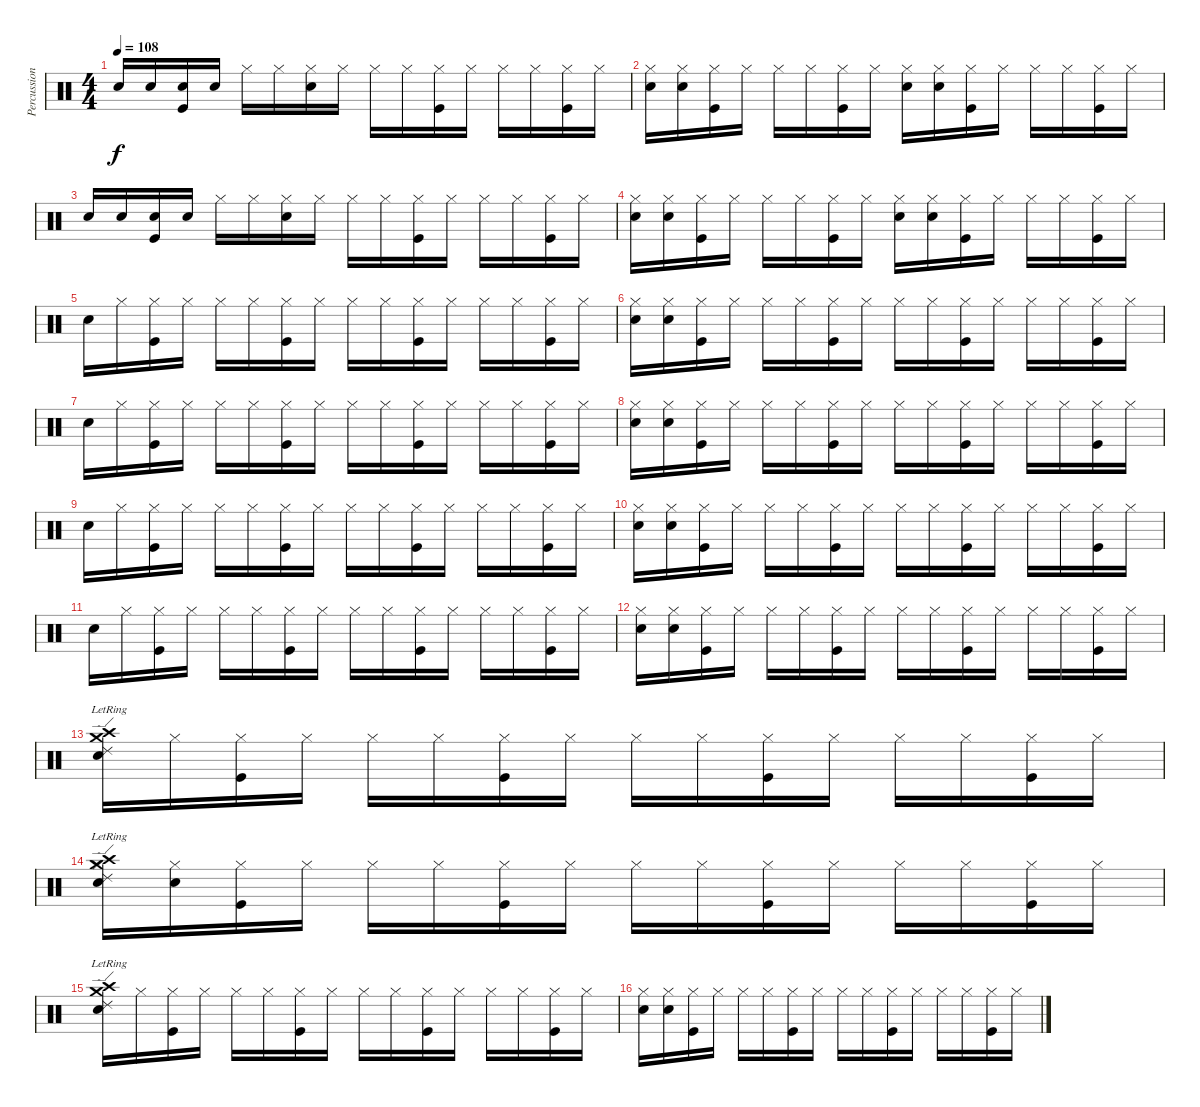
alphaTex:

\track ("Percussions" "Percussion") {instrument percussion}
\staff {score}
\articulation defaults
\ts (4 4)
\tempo 108
\clef neutral
\ks c "Electric Snare (hit)".16{dy f} "Electric Snare (hit)".16
("Electric Snare (hit)" "Kick (hit)").16 "Electric Snare (hit)".16 "Hi-Hat (closed)".16 "Hi-Hat (closed)".16 ("Hi-Hat (closed)" "Electric Snare (hit)").16 "Hi-Hat (closed)".16 "Hi-Hat (closed)".16 "Hi-Hat (closed)".16 ("Hi-Hat (closed)" "Kick (hit)").16 "Hi-Hat (closed)".16 "Hi-Hat (closed)".16 "Hi-Hat (closed)".16 ("Hi-Hat (closed)" "Kick (hit)").16 "Hi-Hat (closed)".16 |
("Hi-Hat (closed)" "Electric Snare (hit)").16 ("Hi-Hat (closed)" "Electric Snare (hit)").16 ("Hi-Hat (closed)" "Kick (hit)").16 "Hi-Hat (closed)".16 "Hi-Hat (closed)".16 "Hi-Hat (closed)".16 ("Hi-Hat (closed)" "Kick (hit)").16 "Hi-Hat (closed)".16 ("Hi-Hat (closed)" "Electric Snare (hit)").16 ("Hi-Hat (closed)" "Electric Snare (hit)").16 ("Hi-Hat (closed)" "Kick (hit)").16 "Hi-Hat (closed)".16 "Hi-Hat (closed)".16 "Hi-Hat (closed)".16 ("Hi-Hat (closed)" "Kick (hit)").16 "Hi-Hat (closed)".16 |
"Electric Snare (hit)".16 "Electric Snare (hit)".16 ("Electric Snare (hit)" "Kick (hit)").16 "Electric Snare (hit)".16 "Hi-Hat (closed)".16 "Hi-Hat (closed)".16 ("Hi-Hat (closed)" "Electric Snare (hit)").16 "Hi-Hat (closed)".16 "Hi-Hat (closed)".16 "Hi-Hat (closed)".16 ("Hi-Hat (closed)" "Kick (hit)").16 "Hi-Hat (closed)".16 "Hi-Hat (closed)".16 "Hi-Hat (closed)".16 ("Hi-Hat (closed)" "Kick (hit)").16 "Hi-Hat (closed)".16 |
("Hi-Hat (closed)" "Electric Snare (hit)").16 ("Hi-Hat (closed)" "Electric Snare (hit)").16 ("Hi-Hat (closed)" "Kick (hit)").16 "Hi-Hat (closed)".16 "Hi-Hat (closed)".16 "Hi-Hat (closed)".16 ("Hi-Hat (closed)" "Kick (hit)").16 "Hi-Hat (closed)".16 ("Hi-Hat (closed)" "Electric Snare (hit)").16 ("Hi-Hat (closed)" "Electric Snare (hit)").16 ("Hi-Hat (closed)" "Kick (hit)").16 "Hi-Hat (closed)".16 "Hi-Hat (closed)".16 "Hi-Hat (closed)".16 ("Hi-Hat (closed)" "Kick (hit)").16 "Hi-Hat (closed)".16 |
"Electric Snare (hit)".16 "Hi-Hat (closed)".16 ("Hi-Hat (closed)" "Kick (hit)").16 "Hi-Hat (closed)".16 "Hi-Hat (closed)".16 "Hi-Hat (closed)".16 ("Hi-Hat (closed)" "Kick (hit)").16 "Hi-Hat (closed)".16 "Hi-Hat (closed)".16 "Hi-Hat (closed)".16 ("Hi-Hat (closed)" "Kick (hit)").16 "Hi-Hat (closed)".16 "Hi-Hat (closed)".16 "Hi-Hat (closed)".16 ("Hi-Hat (closed)" "Kick (hit)").16 "Hi-Hat (closed)".16 |
("Hi-Hat (closed)" "Electric Snare (hit)").16 ("Hi-Hat (closed)" "Electric Snare (hit)").16 ("Hi-Hat (closed)" "Kick (hit)").16 "Hi-Hat (closed)".16 "Hi-Hat (closed)".16 "Hi-Hat (closed)".16 ("Hi-Hat (closed)" "Kick (hit)").16 "Hi-Hat (closed)".16 "Hi-Hat (closed)".16 "Hi-Hat (closed)".16 ("Hi-Hat (closed)" "Kick (hit)").16 "Hi-Hat (closed)".16 "Hi-Hat (closed)".16 "Hi-Hat (closed)".16 ("Hi-Hat (closed)" "Kick (hit)").16 "Hi-Hat (closed)".16 |
"Electric Snare (hit)".16 "Hi-Hat (closed)".16 ("Hi-Hat (closed)" "Kick (hit)").16 "Hi-Hat (closed)".16 "Hi-Hat (closed)".16 "Hi-Hat (closed)".16 ("Hi-Hat (closed)" "Kick (hit)").16 "Hi-Hat (closed)".16 "Hi-Hat (closed)".16 "Hi-Hat (closed)".16 ("Hi-Hat (closed)" "Kick (hit)").16 "Hi-Hat (closed)".16 "Hi-Hat (closed)".16 "Hi-Hat (closed)".16 ("Hi-Hat (closed)" "Kick (hit)").16 "Hi-Hat (closed)".16 |
("Hi-Hat (closed)" "Electric Snare (hit)").16 ("Hi-Hat (closed)" "Electric Snare (hit)").16 ("Hi-Hat (closed)" "Kick (hit)").16 "Hi-Hat (closed)".16 "Hi-Hat (closed)".16 "Hi-Hat (closed)".16 ("Hi-Hat (closed)" "Kick (hit)").16 "Hi-Hat (closed)".16 "Hi-Hat (closed)".16 "Hi-Hat (closed)".16 ("Hi-Hat (closed)" "Kick (hit)").16 "Hi-Hat (closed)".16 "Hi-Hat (closed)".16 "Hi-Hat (closed)".16 ("Hi-Hat (closed)" "Kick (hit)").16 "Hi-Hat (closed)".16 |
"Electric Snare (hit)".16 "Hi-Hat (closed)".16 ("Hi-Hat (closed)" "Kick (hit)").16 "Hi-Hat (closed)".16 "Hi-Hat (closed)".16 "Hi-Hat (closed)".16 ("Hi-Hat (closed)" "Kick (hit)").16 "Hi-Hat (closed)".16 "Hi-Hat (closed)".16 "Hi-Hat (closed)".16 ("Hi-Hat (closed)" "Kick (hit)").16 "Hi-Hat (closed)".16 "Hi-Hat (closed)".16 "Hi-Hat (closed)".16 ("Hi-Hat (closed)" "Kick (hit)").16 "Hi-Hat (closed)".16 |
("Hi-Hat (closed)" "Electric Snare (hit)").16 ("Hi-Hat (closed)" "Electric Snare (hit)").16 ("Hi-Hat (closed)" "Kick (hit)").16 "Hi-Hat (closed)".16 "Hi-Hat (closed)".16 "Hi-Hat (closed)".16 ("Hi-Hat (closed)" "Kick (hit)").16 "Hi-Hat (closed)".16 "Hi-Hat (closed)".16 "Hi-Hat (closed)".16 ("Hi-Hat (closed)" "Kick (hit)").16 "Hi-Hat (closed)".16 "Hi-Hat (closed)".16 "Hi-Hat (closed)".16 ("Hi-Hat (closed)" "Kick (hit)").16 "Hi-Hat (closed)".16 |
"Electric Snare (hit)".16 "Hi-Hat (closed)".16 ("Hi-Hat (closed)" "Kick (hit)").16 "Hi-Hat (closed)".16 "Hi-Hat (closed)".16 "Hi-Hat (closed)".16 ("Hi-Hat (closed)" "Kick (hit)").16 "Hi-Hat (closed)".16 "Hi-Hat (closed)".16 "Hi-Hat (closed)".16 ("Hi-Hat (closed)" "Kick (hit)").16 "Hi-Hat (closed)".16 "Hi-Hat (closed)".16 "Hi-Hat (closed)".16 ("Hi-Hat (closed)" "Kick (hit)").16 "Hi-Hat (closed)".16 |
("Hi-Hat (closed)" "Electric Snare (hit)").16 ("Hi-Hat (closed)" "Electric Snare (hit)").16 ("Hi-Hat (closed)" "Kick (hit)").16 "Hi-Hat (closed)".16 "Hi-Hat (closed)".16 "Hi-Hat (closed)".16 ("Hi-Hat (closed)" "Kick (hit)").16 "Hi-Hat (closed)".16 "Hi-Hat (closed)".16 "Hi-Hat (closed)".16 ("Hi-Hat (closed)" "Kick (hit)").16 "Hi-Hat (closed)".16 "Hi-Hat (closed)".16 "Hi-Hat (closed)".16 ("Hi-Hat (closed)" "Kick (hit)").16 "Hi-Hat (closed)".16 |
("Electric Snare (hit)" "Ride (edge) 2"{lr} "Crash medium (hit)"{lr} "Crash high (hit)"{lr}).16 "Hi-Hat (closed)".16 ("Hi-Hat (closed)" "Kick (hit)").16 "Hi-Hat (closed)".16 "Hi-Hat (closed)".16 "Hi-Hat (closed)".16 ("Hi-Hat (closed)" "Kick (hit)").16 "Hi-Hat (closed)".16 "Hi-Hat (closed)".16 "Hi-Hat (closed)".16 ("Hi-Hat (closed)" "Kick (hit)").16 "Hi-Hat (closed)".16 "Hi-Hat (closed)".16 "Hi-Hat (closed)".16 ("Hi-Hat (closed)" "Kick (hit)").16 "Hi-Hat (closed)".16 |
("Hi-Hat (closed)" "Electric Snare (hit)" "Ride (edge) 2"{lr} "Crash medium (hit)"{lr} "Crash high (hit)"{lr}).16 ("Hi-Hat (closed)" "Electric Snare (hit)").16 ("Hi-Hat (closed)" "Kick (hit)").16 "Hi-Hat (closed)".16 "Hi-Hat (closed)".16 "Hi-Hat (closed)".16 ("Hi-Hat (closed)" "Kick (hit)").16 "Hi-Hat (closed)".16 "Hi-Hat (closed)".16 "Hi-Hat (closed)".16 ("Hi-Hat (closed)" "Kick (hit)").16 "Hi-Hat (closed)".16 "Hi-Hat (closed)".16 "Hi-Hat (closed)".16 ("Hi-Hat (closed)" "Kick (hit)").16 "Hi-Hat (closed)".16 |
("Electric Snare (hit)" "Ride (edge) 2"{lr} "Crash medium (hit)"{lr} "Crash high (hit)").16 "Hi-Hat (closed)".16 ("Hi-Hat (closed)" "Kick (hit)").16 "Hi-Hat (closed)".16 "Hi-Hat (closed)".16 "Hi-Hat (closed)".16 ("Hi-Hat (closed)" "Kick (hit)").16 "Hi-Hat (closed)".16 "Hi-Hat (closed)".16 "Hi-Hat (closed)".16 ("Hi-Hat (closed)" "Kick (hit)").16 "Hi-Hat (closed)".16 "Hi-Hat (closed)".16 "Hi-Hat (closed)".16 ("Hi-Hat (closed)" "Kick (hit)").16 "Hi-Hat (closed)".16 |
("Hi-Hat (closed)" "Electric Snare (hit)").16 ("Hi-Hat (closed)" "Electric Snare (hit)").16 ("Hi-Hat (closed)" "Kick (hit)").16 "Hi-Hat (closed)".16 "Hi-Hat (closed)".16 "Hi-Hat (closed)".16 ("Hi-Hat (closed)" "Kick (hit)").16 "Hi-Hat (closed)".16 "Hi-Hat (closed)".16 "Hi-Hat (closed)".16 ("Hi-Hat (closed)" "Kick (hit)").16 "Hi-Hat (closed)".16 "Hi-Hat (closed)".16 "Hi-Hat (closed)".16 ("Hi-Hat (closed)" "Kick (hit)").16 "Hi-Hat (closed)".16
